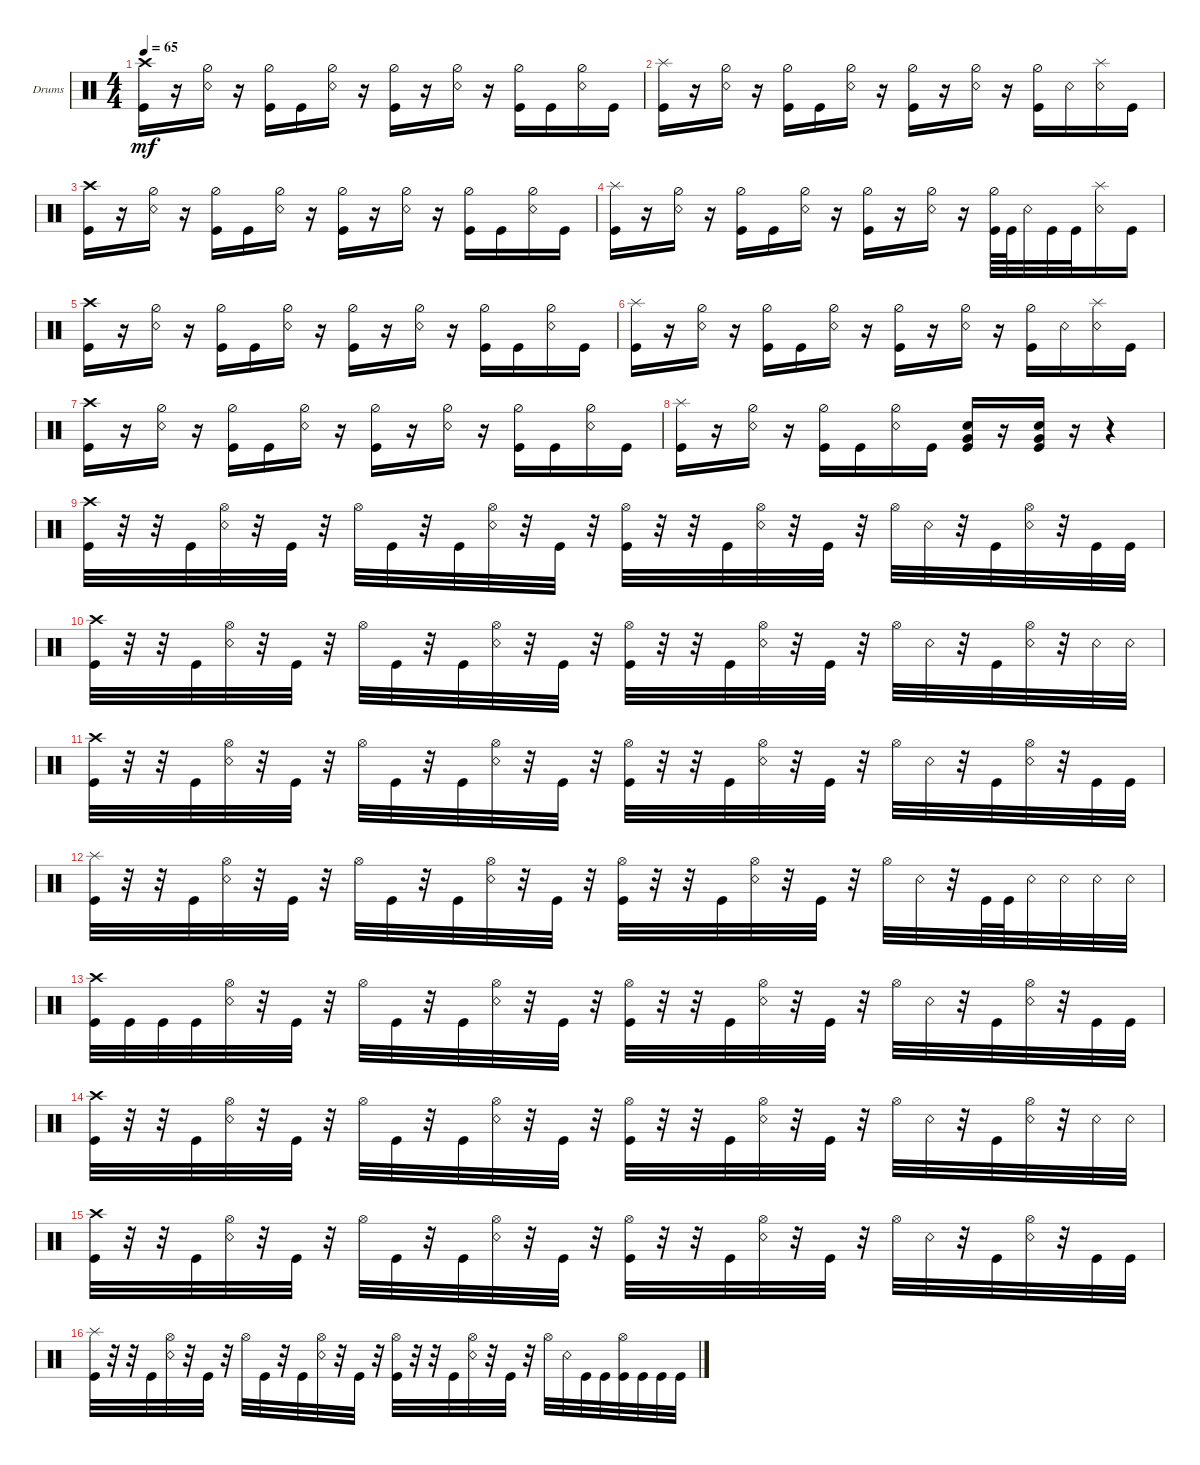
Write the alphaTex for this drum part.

\defaultSystemsLayout 4
\bracketExtendMode groupsimilarinstruments
\firstSystemTrackNameOrientation horizontal
\otherSystemsTrackNameOrientation horizontal
\track ("Drumkit" "Drums") {instrument percussion}
\staff {score}
\articulation defaults
\ts (4 4)
\tempo 65
\clef neutral
\ks c
("Kick (hit)" "Crash high (hit)").16{dy mf} r.16 ("Snare (rim shot)" "Hi-Hat (half)").16 r.16 ("Kick (hit)" "Hi-Hat (half)").16 "Kick (hit)".16 ("Snare (rim shot)" "Hi-Hat (half)").16 r.16 ("Kick (hit)" "Hi-Hat (half)").16 r.16 ("Snare (rim shot)" "Hi-Hat (half)").16 r.16 ("Kick (hit)" "Hi-Hat (half)").16 "Kick (hit)".16 ("Snare (rim shot)" "Hi-Hat (half)").16 "Kick (hit)".16 |
("Kick (hit)" "Splash (hit)").16 r.16 ("Snare (rim shot)" "Hi-Hat (half)").16 r.16 ("Kick (hit)" "Hi-Hat (half)").16 "Kick (hit)".16 ("Snare (rim shot)" "Hi-Hat (half)").16 r.16 ("Kick (hit)" "Hi-Hat (half)").16 r.16 ("Snare (rim shot)" "Hi-Hat (half)").16 r.16 ("Kick (hit)" "Hi-Hat (half)").16 "Snare (rim shot)".16 ("Snare (rim shot)" "Splash (hit)").16 "Kick (hit)".16 |
("Kick (hit)" "Crash high (hit)").16 r.16 ("Snare (rim shot)" "Hi-Hat (half)").16 r.16 ("Kick (hit)" "Hi-Hat (half)").16 "Kick (hit)".16 ("Snare (rim shot)" "Hi-Hat (half)").16 r.16 ("Kick (hit)" "Hi-Hat (half)").16 r.16 ("Snare (rim shot)" "Hi-Hat (half)").16 r.16 ("Kick (hit)" "Hi-Hat (half)").16 "Kick (hit)".16 ("Snare (rim shot)" "Hi-Hat (half)").16 "Kick (hit)".16 |
("Kick (hit)" "Splash (hit)").16 r.16 ("Snare (rim shot)" "Hi-Hat (half)").16 r.16 ("Kick (hit)" "Hi-Hat (half)").16 "Kick (hit)".16 ("Snare (rim shot)" "Hi-Hat (half)").16 r.16 ("Kick (hit)" "Hi-Hat (half)").16 r.16 ("Snare (rim shot)" "Hi-Hat (half)").16 r.16 ("Kick (hit)" "Hi-Hat (half)").64 "Kick (hit)".64 "Snare (rim shot)".32 "Kick (hit)".32 "Kick (hit)".32 ("Snare (rim shot)" "Splash (hit)").16 "Kick (hit)".16 |
("Kick (hit)" "Crash high (hit)").16 r.16 ("Snare (rim shot)" "Hi-Hat (half)").16 r.16 ("Kick (hit)" "Hi-Hat (half)").16 "Kick (hit)".16 ("Snare (rim shot)" "Hi-Hat (half)").16 r.16 ("Kick (hit)" "Hi-Hat (half)").16 r.16 ("Snare (rim shot)" "Hi-Hat (half)").16 r.16 ("Kick (hit)" "Hi-Hat (half)").16 "Kick (hit)".16 ("Snare (rim shot)" "Hi-Hat (half)").16 "Kick (hit)".16 |
("Kick (hit)" "Splash (hit)").16 r.16 ("Snare (rim shot)" "Hi-Hat (half)").16 r.16 ("Kick (hit)" "Hi-Hat (half)").16 "Kick (hit)".16 ("Snare (rim shot)" "Hi-Hat (half)").16 r.16 ("Kick (hit)" "Hi-Hat (half)").16 r.16 ("Snare (rim shot)" "Hi-Hat (half)").16 r.16 ("Kick (hit)" "Hi-Hat (half)").16 "Snare (rim shot)".16 ("Snare (rim shot)" "Splash (hit)").16 "Kick (hit)".16 |
("Kick (hit)" "Crash high (hit)").16 r.16 ("Snare (rim shot)" "Hi-Hat (half)").16 r.16 ("Kick (hit)" "Hi-Hat (half)").16 "Kick (hit)".16 ("Snare (rim shot)" "Hi-Hat (half)").16 r.16 ("Kick (hit)" "Hi-Hat (half)").16 r.16 ("Snare (rim shot)" "Hi-Hat (half)").16 r.16 ("Kick (hit)" "Hi-Hat (half)").16 "Kick (hit)".16 ("Snare (rim shot)" "Hi-Hat (half)").16 "Kick (hit)".16 |
("Kick (hit)" "Splash (hit)").16 r.16 ("Snare (rim shot)" "Hi-Hat (half)").16 r.16 ("Kick (hit)" "Hi-Hat (half)").16 "Kick (hit)".16 ("Snare (rim shot)" "Hi-Hat (half)").16 "Kick (hit)".16 ("Kick (hit)" "Very Low Tom (hit)" "Snare (hit) 2").16 r.16 ("Kick (hit)" "Very Low Tom (hit)" "Snare (hit) 2").16 r.16 r.4 |
("Kick (hit)" "Crash high (hit)").32 r.32 r.32 "Kick (hit)".32 ("Snare (rim shot)" "Hi-Hat (open)").32 r.32 "Kick (hit)".32 r.32 "Hi-Hat (open)".32 "Kick (hit)".32 r.32 "Kick (hit)".32 ("Snare (rim shot)" "Hi-Hat (open)").32 r.32 "Kick (hit)".32 r.32 ("Kick (hit)" "Hi-Hat (open)").32 r.32 r.32 "Kick (hit)".32 ("Snare (rim shot)" "Hi-Hat (open)").32 r.32 "Kick (hit)".32 r.32 "Hi-Hat (open)".32 "Snare (rim shot)".32 r.32 "Kick (hit)".32 ("Snare (rim shot)" "Hi-Hat (open)").32 r.32 "Kick (hit)".32 "Kick (hit)".32 |
("Kick (hit)" "Crash high (hit)").32 r.32 r.32 "Kick (hit)".32 ("Snare (rim shot)" "Hi-Hat (open)").32 r.32 "Kick (hit)".32 r.32 "Hi-Hat (open)".32 "Kick (hit)".32 r.32 "Kick (hit)".32 ("Snare (rim shot)" "Hi-Hat (open)").32 r.32 "Kick (hit)".32 r.32 ("Kick (hit)" "Hi-Hat (open)").32 r.32 r.32 "Kick (hit)".32 ("Snare (rim shot)" "Hi-Hat (open)").32 r.32 "Kick (hit)".32 r.32 "Hi-Hat (open)".32 "Snare (rim shot)".32 r.32 "Kick (hit)".32 ("Snare (rim shot)" "Hi-Hat (open)").32 r.32 "Snare (rim shot)".32 "Snare (rim shot)".32 |
("Kick (hit)" "Crash high (hit)").32 r.32 r.32 "Kick (hit)".32 ("Snare (rim shot)" "Hi-Hat (open)").32 r.32 "Kick (hit)".32 r.32 "Hi-Hat (open)".32 "Kick (hit)".32 r.32 "Kick (hit)".32 ("Snare (rim shot)" "Hi-Hat (open)").32 r.32 "Kick (hit)".32 r.32 ("Kick (hit)" "Hi-Hat (open)").32 r.32 r.32 "Kick (hit)".32 ("Snare (rim shot)" "Hi-Hat (open)").32 r.32 "Kick (hit)".32 r.32 "Hi-Hat (open)".32 "Snare (rim shot)".32 r.32 "Kick (hit)".32 ("Snare (rim shot)" "Hi-Hat (open)").32 r.32 "Kick (hit)".32 "Kick (hit)".32 |
("Kick (hit)" "Splash (hit)").32 r.32 r.32 "Kick (hit)".32 ("Snare (rim shot)" "Hi-Hat (open)").32 r.32 "Kick (hit)".32 r.32 "Hi-Hat (open)".32 "Kick (hit)".32 r.32 "Kick (hit)".32 ("Snare (rim shot)" "Hi-Hat (open)").32 r.32 "Kick (hit)".32 r.32 ("Kick (hit)" "Hi-Hat (open)").32 r.32 r.32 "Kick (hit)".32 ("Snare (rim shot)" "Hi-Hat (open)").32 r.32 "Kick (hit)".32 r.32 "Hi-Hat (open)".32 "Snare (rim shot)".32 r.32 "Kick (hit)".64 "Kick (hit)".64 "Snare (rim shot)".32 "Snare (rim shot)".32 "Snare (rim shot)".32 "Snare (rim shot)".32 |
("Kick (hit)" "Crash high (hit)").32 "Kick (hit)".32 "Kick (hit)".32 "Kick (hit)".32 ("Snare (rim shot)" "Hi-Hat (open)").32 r.32 "Kick (hit)".32 r.32 "Hi-Hat (open)".32 "Kick (hit)".32 r.32 "Kick (hit)".32 ("Snare (rim shot)" "Hi-Hat (open)").32 r.32 "Kick (hit)".32 r.32 ("Kick (hit)" "Hi-Hat (open)").32 r.32 r.32 "Kick (hit)".32 ("Snare (rim shot)" "Hi-Hat (open)").32 r.32 "Kick (hit)".32 r.32 "Hi-Hat (open)".32 "Snare (rim shot)".32 r.32 "Kick (hit)".32 ("Snare (rim shot)" "Hi-Hat (open)").32 r.32 "Kick (hit)".32 "Kick (hit)".32 |
("Kick (hit)" "Crash high (hit)").32 r.32 r.32 "Kick (hit)".32 ("Snare (rim shot)" "Hi-Hat (open)").32 r.32 "Kick (hit)".32 r.32 "Hi-Hat (open)".32 "Kick (hit)".32 r.32 "Kick (hit)".32 ("Snare (rim shot)" "Hi-Hat (open)").32 r.32 "Kick (hit)".32 r.32 ("Kick (hit)" "Hi-Hat (open)").32 r.32 r.32 "Kick (hit)".32 ("Snare (rim shot)" "Hi-Hat (open)").32 r.32 "Kick (hit)".32 r.32 "Hi-Hat (open)".32 "Snare (rim shot)".32 r.32 "Kick (hit)".32 ("Snare (rim shot)" "Hi-Hat (open)").32 r.32 "Snare (rim shot)".32 "Snare (rim shot)".32 |
("Kick (hit)" "Crash high (hit)").32 r.32 r.32 "Kick (hit)".32 ("Snare (rim shot)" "Hi-Hat (open)").32 r.32 "Kick (hit)".32 r.32 "Hi-Hat (open)".32 "Kick (hit)".32 r.32 "Kick (hit)".32 ("Snare (rim shot)" "Hi-Hat (open)").32 r.32 "Kick (hit)".32 r.32 ("Kick (hit)" "Hi-Hat (open)").32 r.32 r.32 "Kick (hit)".32 ("Snare (rim shot)" "Hi-Hat (open)").32 r.32 "Kick (hit)".32 r.32 "Hi-Hat (open)".32 "Snare (rim shot)".32 r.32 "Kick (hit)".32 ("Snare (rim shot)" "Hi-Hat (open)").32 r.32 "Kick (hit)".32 "Kick (hit)".32 |
("Kick (hit)" "Splash (hit)").32 r.32 r.32 "Kick (hit)".32 ("Snare (rim shot)" "Hi-Hat (open)").32 r.32 "Kick (hit)".32 r.32 "Hi-Hat (open)".32 "Kick (hit)".32 r.32 "Kick (hit)".32 ("Snare (rim shot)" "Hi-Hat (open)").32 r.32 "Kick (hit)".32 r.32 ("Kick (hit)" "Hi-Hat (open)").32 r.32 r.32 "Kick (hit)".32 ("Snare (rim shot)" "Hi-Hat (open)").32 r.32 "Kick (hit)".32 r.32 "Hi-Hat (open)".32 "Snare (rim shot)".32 "Kick (hit)".32 "Kick (hit)".32 ("Kick (hit)" "Hi-Hat (open)").32 "Kick (hit)".32 "Kick (hit)".32 "Kick (hit)".32
